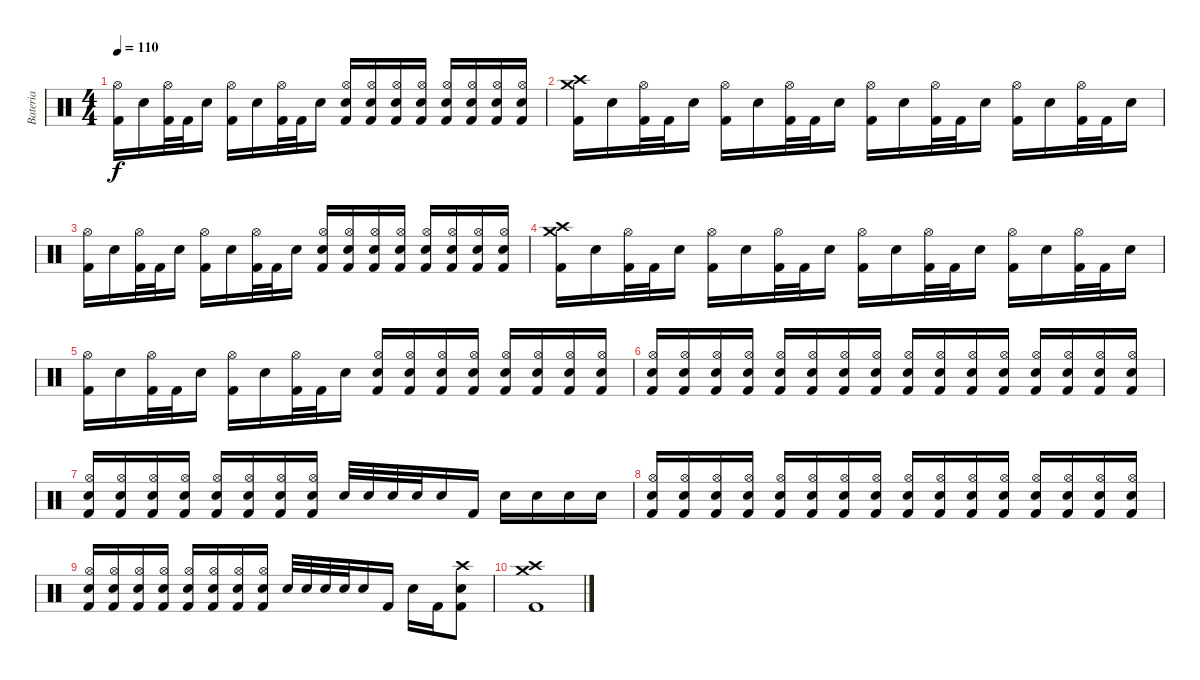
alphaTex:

\track ("Bateria" "Bateria") {instrument percussion}
\staff {score}
\articulation defaults
\ts (4 4)
\tempo 110
\clef neutral
\ks c
("Kick (hit) 2" "Hi-Hat (open)").16{dy f} "Electric Snare (hit)".16 ("Kick (hit) 2" "Hi-Hat (open)").32 "Kick (hit) 2".32 "Electric Snare (hit)".16 ("Kick (hit) 2" "Hi-Hat (open)").16 "Electric Snare (hit)".16 ("Kick (hit) 2" "Hi-Hat (open)").32 "Kick (hit) 2".32 "Electric Snare (hit)".16 ("Kick (hit) 2" "Hi-Hat (open)" "Electric Snare (hit)").16 ("Kick (hit) 2" "Hi-Hat (open)" "Electric Snare (hit)").16 ("Kick (hit) 2" "Hi-Hat (open)" "Electric Snare (hit)").16 ("Kick (hit) 2" "Hi-Hat (open)" "Electric Snare (hit)").16 ("Kick (hit) 2" "Hi-Hat (open)" "Electric Snare (hit)").16 ("Kick (hit) 2" "Hi-Hat (open)" "Electric Snare (hit)").16 ("Kick (hit) 2" "Hi-Hat (open)" "Electric Snare (hit)").16 ("Kick (hit) 2" "Hi-Hat (open)" "Electric Snare (hit)").16 |
("Kick (hit) 2" "Crash medium (hit)" "Crash high (hit)").16 "Electric Snare (hit)".16 ("Kick (hit) 2" "Hi-Hat (open)").32 "Kick (hit) 2".32 "Electric Snare (hit)".16 ("Kick (hit) 2" "Hi-Hat (open)").16 "Electric Snare (hit)".16 ("Kick (hit) 2" "Hi-Hat (open)").32 "Kick (hit) 2".32 "Electric Snare (hit)".16 ("Kick (hit) 2" "Hi-Hat (open)").16 "Electric Snare (hit)".16 ("Kick (hit) 2" "Hi-Hat (open)").32 "Kick (hit) 2".32 "Electric Snare (hit)".16 ("Kick (hit) 2" "Hi-Hat (open)").16 "Electric Snare (hit)".16 ("Kick (hit) 2" "Hi-Hat (open)").32 "Kick (hit) 2".32 "Electric Snare (hit)".16 |
("Kick (hit) 2" "Hi-Hat (open)").16 "Electric Snare (hit)".16 ("Kick (hit) 2" "Hi-Hat (open)").32 "Kick (hit) 2".32 "Electric Snare (hit)".16 ("Kick (hit) 2" "Hi-Hat (open)").16 "Electric Snare (hit)".16 ("Kick (hit) 2" "Hi-Hat (open)").32 "Kick (hit) 2".32 "Electric Snare (hit)".16 ("Kick (hit) 2" "Hi-Hat (open)" "Electric Snare (hit)").16 ("Kick (hit) 2" "Hi-Hat (open)" "Electric Snare (hit)").16 ("Kick (hit) 2" "Hi-Hat (open)" "Electric Snare (hit)").16 ("Kick (hit) 2" "Hi-Hat (open)" "Electric Snare (hit)").16 ("Kick (hit) 2" "Hi-Hat (open)" "Electric Snare (hit)").16 ("Kick (hit) 2" "Hi-Hat (open)" "Electric Snare (hit)").16 ("Kick (hit) 2" "Hi-Hat (open)" "Electric Snare (hit)").16 ("Kick (hit) 2" "Hi-Hat (open)" "Electric Snare (hit)").16 |
("Kick (hit) 2" "Crash medium (hit)" "Crash high (hit)").16 "Electric Snare (hit)".16 ("Kick (hit) 2" "Hi-Hat (open)").32 "Kick (hit) 2".32 "Electric Snare (hit)".16 ("Kick (hit) 2" "Hi-Hat (open)").16 "Electric Snare (hit)".16 ("Kick (hit) 2" "Hi-Hat (open)").32 "Kick (hit) 2".32 "Electric Snare (hit)".16 ("Kick (hit) 2" "Hi-Hat (open)").16 "Electric Snare (hit)".16 ("Kick (hit) 2" "Hi-Hat (open)").32 "Kick (hit) 2".32 "Electric Snare (hit)".16 ("Kick (hit) 2" "Hi-Hat (open)").16 "Electric Snare (hit)".16 ("Kick (hit) 2" "Hi-Hat (open)").32 "Kick (hit) 2".32 "Electric Snare (hit)".16 |
("Kick (hit) 2" "Hi-Hat (open)").16 "Electric Snare (hit)".16 ("Kick (hit) 2" "Hi-Hat (open)").32 "Kick (hit) 2".32 "Electric Snare (hit)".16 ("Kick (hit) 2" "Hi-Hat (open)").16 "Electric Snare (hit)".16 ("Kick (hit) 2" "Hi-Hat (open)").32 "Kick (hit) 2".32 "Electric Snare (hit)".16 ("Kick (hit) 2" "Hi-Hat (open)" "Electric Snare (hit)").16 ("Kick (hit) 2" "Hi-Hat (open)" "Electric Snare (hit)").16 ("Kick (hit) 2" "Hi-Hat (open)" "Electric Snare (hit)").16 ("Kick (hit) 2" "Hi-Hat (open)" "Electric Snare (hit)").16 ("Kick (hit) 2" "Hi-Hat (open)" "Electric Snare (hit)").16 ("Kick (hit) 2" "Hi-Hat (open)" "Electric Snare (hit)").16 ("Kick (hit) 2" "Hi-Hat (open)" "Electric Snare (hit)").16 ("Kick (hit) 2" "Hi-Hat (open)" "Electric Snare (hit)").16 |
("Kick (hit) 2" "Hi-Hat (open)" "Electric Snare (hit)").16 ("Kick (hit) 2" "Hi-Hat (open)" "Electric Snare (hit)").16 ("Kick (hit) 2" "Hi-Hat (open)" "Electric Snare (hit)").16 ("Kick (hit) 2" "Hi-Hat (open)" "Electric Snare (hit)").16 ("Kick (hit) 2" "Hi-Hat (open)" "Electric Snare (hit)").16 ("Kick (hit) 2" "Hi-Hat (open)" "Electric Snare (hit)").16 ("Kick (hit) 2" "Hi-Hat (open)" "Electric Snare (hit)").16 ("Kick (hit) 2" "Hi-Hat (open)" "Electric Snare (hit)").16 ("Kick (hit) 2" "Hi-Hat (open)" "Electric Snare (hit)").16 ("Kick (hit) 2" "Hi-Hat (open)" "Electric Snare (hit)").16 ("Kick (hit) 2" "Hi-Hat (open)" "Electric Snare (hit)").16 ("Kick (hit) 2" "Hi-Hat (open)" "Electric Snare (hit)").16 ("Kick (hit) 2" "Hi-Hat (open)" "Electric Snare (hit)").16 ("Kick (hit) 2" "Hi-Hat (open)" "Electric Snare (hit)").16 ("Kick (hit) 2" "Hi-Hat (open)" "Electric Snare (hit)").16 ("Kick (hit) 2" "Hi-Hat (open)" "Electric Snare (hit)").16 |
("Kick (hit) 2" "Hi-Hat (open)" "Electric Snare (hit)").16 ("Kick (hit) 2" "Hi-Hat (open)" "Electric Snare (hit)").16 ("Kick (hit) 2" "Hi-Hat (open)" "Electric Snare (hit)").16 ("Kick (hit) 2" "Hi-Hat (open)" "Electric Snare (hit)").16 ("Kick (hit) 2" "Hi-Hat (open)" "Electric Snare (hit)").16 ("Kick (hit) 2" "Hi-Hat (open)" "Electric Snare (hit)").16 ("Kick (hit) 2" "Hi-Hat (open)" "Electric Snare (hit)").16 ("Kick (hit) 2" "Hi-Hat (open)" "Electric Snare (hit)").16 "Electric Snare (hit)".32 "Electric Snare (hit)".32 "Electric Snare (hit)".32 "Electric Snare (hit)".32 "Electric Snare (hit)".16 "Kick (hit) 2".16 "Electric Snare (hit)".16 "Electric Snare (hit)".16 "Electric Snare (hit)".16 "Electric Snare (hit)".16 |
("Kick (hit) 2" "Hi-Hat (open)" "Electric Snare (hit)").16 ("Kick (hit) 2" "Hi-Hat (open)" "Electric Snare (hit)").16 ("Kick (hit) 2" "Hi-Hat (open)" "Electric Snare (hit)").16 ("Kick (hit) 2" "Hi-Hat (open)" "Electric Snare (hit)").16 ("Kick (hit) 2" "Hi-Hat (open)" "Electric Snare (hit)").16 ("Kick (hit) 2" "Hi-Hat (open)" "Electric Snare (hit)").16 ("Kick (hit) 2" "Hi-Hat (open)" "Electric Snare (hit)").16 ("Kick (hit) 2" "Hi-Hat (open)" "Electric Snare (hit)").16 ("Kick (hit) 2" "Hi-Hat (open)" "Electric Snare (hit)").16 ("Kick (hit) 2" "Hi-Hat (open)" "Electric Snare (hit)").16 ("Kick (hit) 2" "Hi-Hat (open)" "Electric Snare (hit)").16 ("Kick (hit) 2" "Hi-Hat (open)" "Electric Snare (hit)").16 ("Kick (hit) 2" "Hi-Hat (open)" "Electric Snare (hit)").16 ("Kick (hit) 2" "Hi-Hat (open)" "Electric Snare (hit)").16 ("Kick (hit) 2" "Hi-Hat (open)" "Electric Snare (hit)").16 ("Kick (hit) 2" "Hi-Hat (open)" "Electric Snare (hit)").16 |
("Kick (hit) 2" "Hi-Hat (open)" "Electric Snare (hit)").16 ("Kick (hit) 2" "Hi-Hat (open)" "Electric Snare (hit)").16 ("Kick (hit) 2" "Hi-Hat (open)" "Electric Snare (hit)").16 ("Kick (hit) 2" "Hi-Hat (open)" "Electric Snare (hit)").16 ("Kick (hit) 2" "Hi-Hat (open)" "Electric Snare (hit)").16 ("Kick (hit) 2" "Hi-Hat (open)" "Electric Snare (hit)").16 ("Kick (hit) 2" "Hi-Hat (open)" "Electric Snare (hit)").16 ("Kick (hit) 2" "Hi-Hat (open)" "Electric Snare (hit)").16 "Electric Snare (hit)".32 "Electric Snare (hit)".32 "Electric Snare (hit)".32 "Electric Snare (hit)".32 "Electric Snare (hit)".16 "Kick (hit) 2".16 "Electric Snare (hit)".16 "Kick (hit) 2".16 ("Kick (hit) 2" "Crash high (hit)" "Electric Snare (hit)").8 |
("Kick (hit) 2" "Crash medium (hit)" "Crash high (hit)").1
